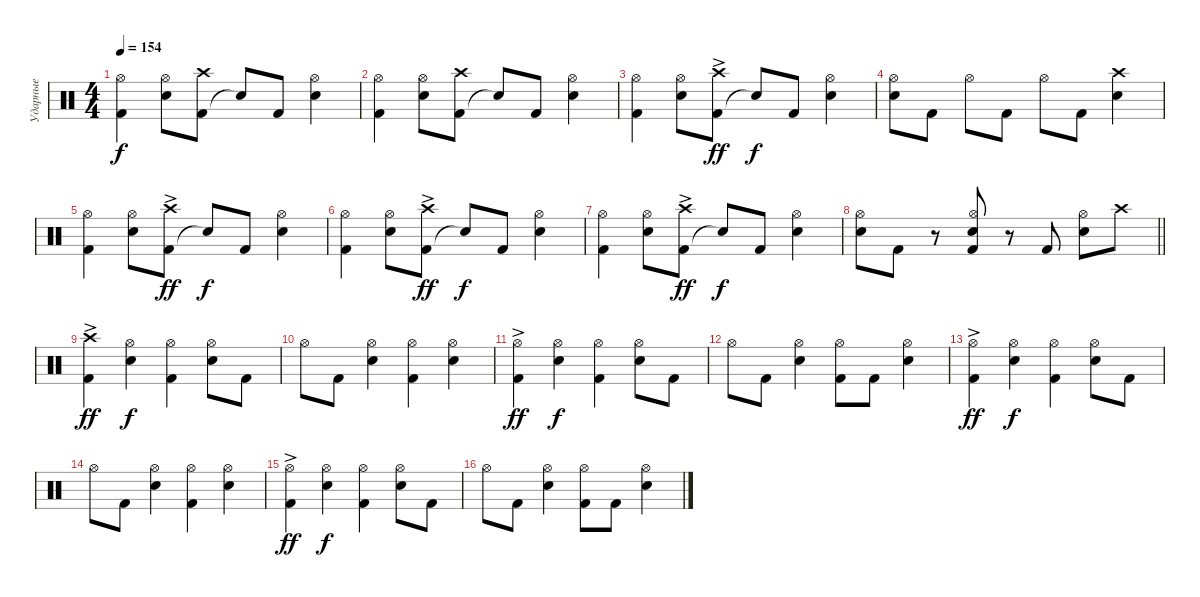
\track ("Ударные" "Ударные") {instrument percussion}
\staff {score}
\articulation defaults
\ts (4 4)
\tempo 154
\clef neutral
\ks c
("Kick (hit) 2" "Hi-Hat (open)").4{dy f} ("Snare (hit) 2" "Hi-Hat (open)").8 ("Kick (hit) 2" "Crash high (hit)").8 "Snare (hit)"{t}.8 "Kick (hit) 2".8 ("Snare (hit) 2" "Hi-Hat (open)").4 |
("Kick (hit) 2" "Hi-Hat (open)").4 ("Snare (hit) 2" "Hi-Hat (open)").8 ("Kick (hit) 2" "Crash high (hit)").8 "Snare (hit)"{t}.8 "Kick (hit) 2".8 ("Snare (hit) 2" "Hi-Hat (open)").4 |
("Kick (hit) 2" "Hi-Hat (open)").4 ("Snare (hit) 2" "Hi-Hat (open)").8 ("Kick (hit) 2" "Crash high (hit)"{ac}).8{dy ff} "Snare (hit)"{t}.8{dy f} "Kick (hit) 2".8 ("Snare (hit) 2" "Hi-Hat (open)").4 |
("Snare (hit) 2" "Hi-Hat (open)").8 "Kick (hit) 2".8 "Hi-Hat (open)".8 "Kick (hit) 2".8 "Hi-Hat (open)".8 "Kick (hit) 2".8 ("Snare (hit) 2" "Crash high (hit)").4 |
("Kick (hit) 2" "Hi-Hat (open)").4 ("Snare (hit) 2" "Hi-Hat (open)").8 ("Kick (hit) 2" "Crash high (hit)"{ac}).8{dy ff} "Snare (hit)"{t}.8{dy f} "Kick (hit) 2".8 ("Snare (hit) 2" "Hi-Hat (open)").4 |
("Kick (hit) 2" "Hi-Hat (open)").4 ("Snare (hit) 2" "Hi-Hat (open)").8 ("Kick (hit) 2" "Crash high (hit)"{ac}).8{dy ff} "Snare (hit)"{t}.8{dy f} "Kick (hit) 2".8 ("Snare (hit) 2" "Hi-Hat (open)").4 |
("Kick (hit) 2" "Hi-Hat (open)").4 ("Snare (hit) 2" "Hi-Hat (open)").8 ("Kick (hit) 2" "Crash high (hit)"{ac}).8{dy ff} "Snare (hit)"{t}.8{dy f} "Kick (hit) 2".8 ("Snare (hit) 2" "Hi-Hat (open)").4 |
\barLineRight lightlight
("Snare (hit) 2" "Hi-Hat (open)").8 "Kick (hit) 2".8 r.8 ("Kick (hit) 2" "Snare (hit) 2" "Hi-Hat (open)").8 r.8 "Kick (hit) 2".8 ("Snare (hit) 2" "Hi-Hat (open)").8 "Crash high (hit)".8 |
("Kick (hit) 2" "Crash high (hit)"{ac}).4{dy ff} ("Snare (hit) 2" "Hi-Hat (open)").4{dy f} ("Kick (hit) 2" "Hi-Hat (open)").4 ("Snare (hit) 2" "Hi-Hat (open)").8 "Kick (hit) 2".8 |
"Hi-Hat (open)".8 "Kick (hit) 2".8 ("Snare (hit) 2" "Hi-Hat (open)").4 ("Kick (hit) 2" "Hi-Hat (open)").4 ("Snare (hit) 2" "Hi-Hat (open)").4 |
("Kick (hit) 2" "Hi-Hat (open)"{ac}).4{dy ff} ("Snare (hit) 2" "Hi-Hat (open)").4{dy f} ("Kick (hit) 2" "Hi-Hat (open)").4 ("Snare (hit) 2" "Hi-Hat (open)").8 "Kick (hit) 2".8 |
"Hi-Hat (open)".8 "Kick (hit) 2".8 ("Snare (hit) 2" "Hi-Hat (open)").4 ("Kick (hit) 2" "Hi-Hat (open)").8 "Kick (hit) 2".8 ("Snare (hit) 2" "Hi-Hat (open)").4 |
("Kick (hit) 2" "Hi-Hat (open)"{ac}).4{dy ff} ("Snare (hit) 2" "Hi-Hat (open)").4{dy f} ("Kick (hit) 2" "Hi-Hat (open)").4 ("Snare (hit) 2" "Hi-Hat (open)").8 "Kick (hit) 2".8 |
"Hi-Hat (open)".8 "Kick (hit) 2".8 ("Snare (hit) 2" "Hi-Hat (open)").4 ("Kick (hit) 2" "Hi-Hat (open)").4 ("Snare (hit) 2" "Hi-Hat (open)").4 |
("Kick (hit) 2" "Hi-Hat (open)"{ac}).4{dy ff} ("Snare (hit) 2" "Hi-Hat (open)").4{dy f} ("Kick (hit) 2" "Hi-Hat (open)").4 ("Snare (hit) 2" "Hi-Hat (open)").8 "Kick (hit) 2".8 |
"Hi-Hat (open)".8 "Kick (hit) 2".8 ("Snare (hit) 2" "Hi-Hat (open)").4 ("Kick (hit) 2" "Hi-Hat (open)").8 "Kick (hit) 2".8 ("Snare (hit) 2" "Hi-Hat (open)").4
